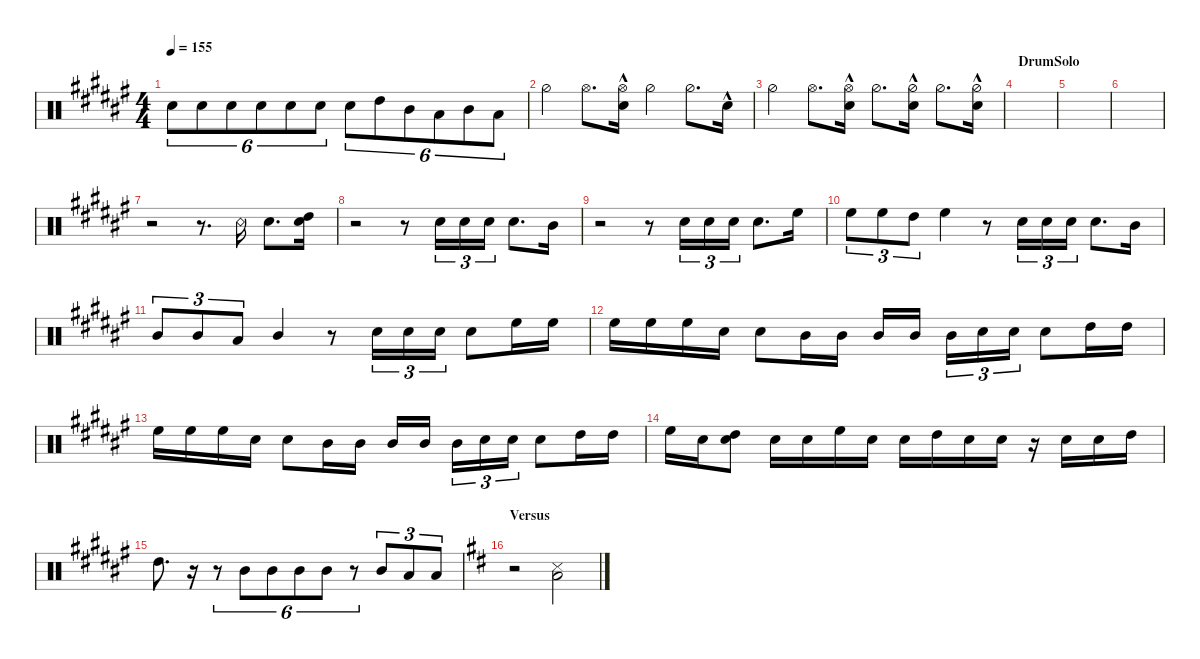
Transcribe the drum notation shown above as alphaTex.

\hideDynamics
\bracketExtendMode nobrackets
\singleTrackTrackNamePolicy hidden
\multiTrackTrackNamePolicy hidden
\otherSystemsTrackNameOrientation horizontal
\track ("Drums" "Drums") {instrument percussion}
\staff {score}
\articulation defaults
\ts (4 4)
\tempo 155
\clef neutral
\ks f# "Snare (hit) 2"{acc forcenatural}.8{tu (6 4) dy mf beam Down} "Snare (hit) 2"{acc forcenatural}.8{tu (6 4) dy p beam Down} "Snare (hit) 2"{acc forcenatural}.8{tu (6 4) beam Down} "Snare (hit) 2"{acc forcenatural}.8{tu (6 4) dy mf beam Down} "Snare (hit) 2"{acc forcenatural}.8{tu (6 4) dy p beam Down} "Snare (hit) 2"{acc forcenatural}.8{tu (6 4) beam Down} "Snare (hit) 2"{acc forcenatural}.8{tu (6 4) dy mf beam Down} "High Tom (hit)"{acc forcenatural}.8{tu (6 4) dy p beam Down} "Mid Tom (hit)"{acc forcenatural}.8{tu (6 4) beam Down} "Low Tom (hit)"{acc forcenatural}.8{tu (6 4) dy mf beam Down} "Mid Tom (hit)"{acc forcenatural}.8{tu (6 4) dy p beam Down} "Low Tom (hit)"{acc forcenatural}.8{tu (6 4) dy mf beam Down}
|
"Hi-Hat (half)"{acc forcenatural}.4{dy pp beam Down} "Hi-Hat (open)"{acc forcenatural}.8{d beam Down} ("Hi-Hat (open)"{acc forcenatural} "Snare (hit) 2"{hac acc forcenatural}).16{beam Down} "Hi-Hat (half)"{acc forcenatural}.4{beam Down} "Hi-Hat (half)"{acc forcenatural}.8{d beam Down} "Snare (hit) 2"{hac acc forcenatural}.16{beam Down} |
"Hi-Hat (half)"{acc forcenatural}.4{beam Down} "Hi-Hat (open)"{acc forcenatural}.8{d beam Down} ("Hi-Hat (open)"{acc forcenatural} "Snare (hit) 2"{hac acc forcenatural}).16{beam Down} "Hi-Hat (half)"{acc forcenatural}.8{d beam Down} ("Hi-Hat (half)"{acc forcenatural} "Snare (hit) 2"{hac acc forcenatural}).16{beam Down} "Hi-Hat (half)"{acc forcenatural}.8{d beam Down} ("Snare (hit) 2"{hac acc forcenatural} "Hi-Hat (half)"{acc forcenatural}).16{beam Down} |
\section ("" "DrumSolo")
|
|
|
r.2{beam Down} r.8{d beam Down} "Snare (rim shot)"{acc forcenatural}.16{dy p beam Down} "Snare (hit) 2"{acc forcenatural}.8{d dy mf beam Down} ("Snare (hit) 2"{acc forcenatural} "High Tom (hit)"{acc forcenatural}).16{dy mp beam Down} |
r.2{beam Down} r.8{beam Down} "Snare (hit) 2"{acc forcenatural}.16{tu (3 2) dy p beam Down} "Snare (hit) 2"{acc forcenatural}.16{tu (3 2) dy mp beam Down} "Snare (hit) 2"{acc forcenatural}.16{tu (3 2) beam Down} "Snare (hit) 2"{acc forcenatural}.8{d dy mf beam Down} "Mid Tom (hit)"{acc forcenatural}.16{dy mp beam Down} |
r.2{beam Down} r.8{beam Down} "Snare (hit) 2"{acc forcenatural}.16{tu (3 2) dy p beam Down} "Snare (hit) 2"{acc forcenatural}.16{tu (3 2) dy mp beam Down} "Snare (hit) 2"{acc forcenatural}.16{tu (3 2) beam Down} "Snare (hit) 2"{acc forcenatural}.8{d dy mf beam Down} "High Floor Tom (hit)"{acc forcenatural}.16{dy p beam Down} |
"High Floor Tom (hit)"{acc forcenatural}.8{tu (3 2) beam Down} "High Floor Tom (hit)"{acc forcenatural}.8{tu (3 2) beam Down} "High Tom (hit)"{acc forcenatural}.8{tu (3 2) beam Down} "High Floor Tom (hit)"{acc forcenatural}.4{beam Down} r.8{beam Down} "Snare (hit) 2"{acc forcenatural}.16{tu (3 2) beam Down} "Snare (hit) 2"{acc forcenatural}.16{tu (3 2) dy mp beam Down} "Snare (hit) 2"{acc forcenatural}.16{tu (3 2) beam Down} "Snare (hit) 2"{acc forcenatural}.8{d dy mf beam Down} "Mid Tom (hit)"{acc forcenatural}.16{dy p beam Down} |
"Mid Tom (hit)"{acc forcenatural}.8{tu (3 2) beam Up} "Mid Tom (hit)"{acc forcenatural}.8{tu (3 2) beam Up} "Low Tom (hit)"{acc forcenatural}.8{tu (3 2) dy mp beam Up} "Mid Tom (hit)"{acc forcenatural}.4{dy p beam Up} r.8{beam Up} "Snare (hit) 2"{acc forcenatural}.16{tu (3 2) beam Down} "Snare (hit) 2"{acc forcenatural}.16{tu (3 2) dy mp beam Down} "Snare (hit) 2"{acc forcenatural}.16{tu (3 2) beam Down} "Snare (hit) 2"{acc forcenatural}.8{dy mf beam Down} "High Floor Tom (hit)"{acc forcenatural}.16{dy p beam Down} "High Floor Tom (hit)"{acc forcenatural}.16{beam Down} |
"High Floor Tom (hit)"{acc forcenatural}.16{beam Down} "High Floor Tom (hit)"{acc forcenatural}.16{beam Down} "High Floor Tom (hit)"{acc forcenatural}.16{dy mp beam Down} "Snare (hit) 2"{acc forcenatural}.16{beam Down} "Snare (hit) 2"{acc forcenatural}.8{beam Down} "Mid Tom (hit)"{acc forcenatural}.16{dy p beam Down} "Mid Tom (hit)"{acc forcenatural}.16{beam Down} "Mid Tom (hit)"{acc forcenatural}.16{beam Up} "Mid Tom (hit)"{acc forcenatural}.16{beam Up} "Mid Tom (hit)"{acc forcenatural}.16{tu (3 2) beam Down} "Snare (hit) 2"{acc forcenatural}.16{tu (3 2) beam Down} "Snare (hit) 2"{acc forcenatural}.16{tu (3 2) beam Down} "Snare (hit) 2"{acc forcenatural}.8{dy mf beam Down} "High Tom (hit)"{acc forcenatural}.16{dy p beam Down} "High Tom (hit)"{acc forcenatural}.16{beam Down} |
"High Floor Tom (hit)"{acc forcenatural}.16{beam Down} "High Floor Tom (hit)"{acc forcenatural}.16{beam Down} "High Floor Tom (hit)"{acc forcenatural}.16{dy mp beam Down} "Snare (hit) 2"{acc forcenatural}.16{beam Down} "Snare (hit) 2"{acc forcenatural}.8{beam Down} "Mid Tom (hit)"{acc forcenatural}.16{dy p beam Down} "Mid Tom (hit)"{acc forcenatural}.16{beam Down} "Mid Tom (hit)"{acc forcenatural}.16{beam Up} "Mid Tom (hit)"{acc forcenatural}.16{beam Up} "Mid Tom (hit)"{acc forcenatural}.16{tu (3 2) beam Down} "Snare (hit) 2"{acc forcenatural}.16{tu (3 2) beam Down} "Snare (hit) 2"{acc forcenatural}.16{tu (3 2) beam Down} "Snare (hit) 2"{acc forcenatural}.8{dy mf beam Down} "High Tom (hit)"{acc forcenatural}.16{dy p beam Down} "High Tom (hit)"{acc forcenatural}.16{beam Down} |
"High Floor Tom (hit)"{acc forcenatural}.16{dy mp beam Down} "Snare (hit) 2"{acc forcenatural}.16{beam Down} ("Snare (hit) 2"{acc forcenatural} "High Tom (hit)"{acc forcenatural}).8{dy p beam Down} "Snare (hit) 2"{acc forcenatural}.16{dy mp beam Down} "Snare (hit) 2"{acc forcenatural}.16{beam Down} "High Floor Tom (hit)"{acc forcenatural}.16{beam Down} "Snare (hit) 2"{acc forcenatural}.16{beam Down} "Snare (hit) 2"{acc forcenatural}.16{beam Down} "High Tom (hit)"{acc forcenatural}.16{dy p beam Down} "Snare (hit) 2"{acc forcenatural}.16{dy mp beam Down} "Snare (hit) 2"{acc forcenatural}.16{beam Down} r.16{beam Down} "Snare (hit) 2"{acc forcenatural}.16{beam Down} "Snare (hit) 2"{acc forcenatural}.16{beam Down} "High Tom (hit)"{acc forcenatural}.16{dy p beam Down} |
"High Tom (hit)"{acc forcenatural}.8{d dy mf beam Down} r.16{beam Down} r.8{tu (6 4) beam Down} "Mid Tom (hit)"{acc forcenatural}.8{tu (6 4) dy p beam Up} "Mid Tom (hit)"{acc forcenatural}.8{tu (6 4) beam Up} "Mid Tom (hit)"{acc forcenatural}.8{tu (6 4) dy mp beam Up} "Mid Tom (hit)"{acc forcenatural}.8{tu (6 4) beam Up} r.8{tu (6 4) beam Up} "Mid Tom (hit)"{acc forcenatural}.8{tu (3 2) beam Up} "Low Tom (hit)"{acc forcenatural}.8{tu (3 2) beam Up} "Low Tom (hit)"{acc forcenatural}.8{tu (3 2) dy mf beam Up} |
\section ("" "Versus")
\ks d
r.2{beam Down} ("Snare (side stick) 3"{acc forcenatural} "Low Tom (hit)"{acc forcenatural}).2{beam Down}
